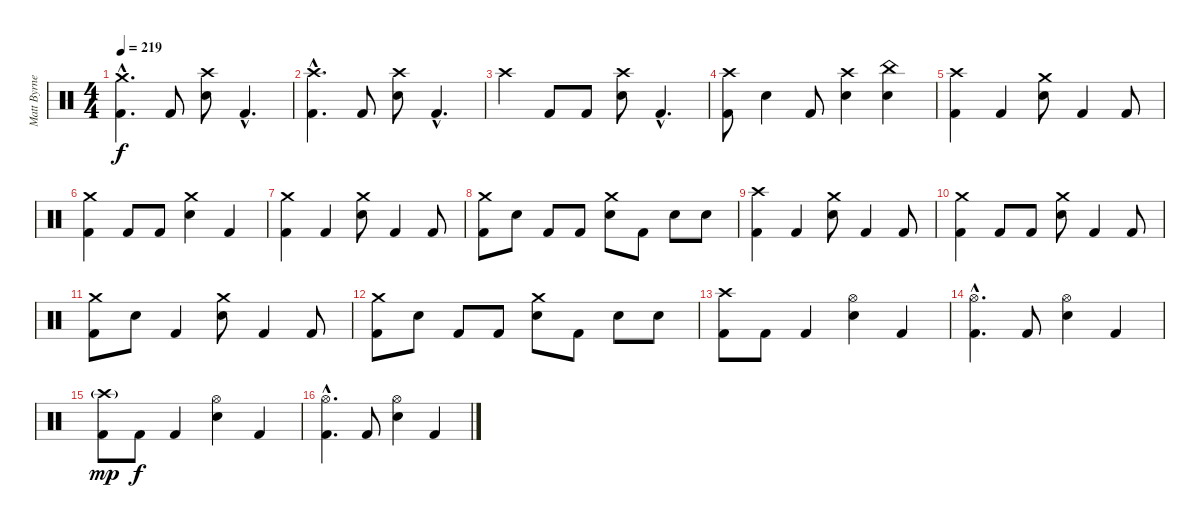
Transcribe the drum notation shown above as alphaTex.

\track ("Matt Byrne (Drums)" "Matt Byrne") {instrument percussion}
\staff {score}
\articulation defaults
\ts (4 4)
\tempo 219
\clef neutral
\ks c
("Crash medium (hit)"{hac} "Kick (hit) 2"{hac}).4{d dy f} "Kick (hit) 2".8 ("Crash high (hit)" "Snare (hit) 2").8 "Kick (hit) 2"{hac}.4{d} |
("Crash high (hit)"{hac} "Kick (hit) 2"{hac}).4{d} "Kick (hit) 2".8 ("Crash high (hit)" "Snare (hit) 2").8 "Kick (hit) 2"{hac}.4{d} |
"Crash high (hit)".4 "Kick (hit) 2".8 "Kick (hit) 2".8 ("Crash high (hit)" "Snare (hit) 2").8 "Kick (hit) 2"{hac}.4{d} |
("Crash high (hit)" "Kick (hit) 2").8 "Snare (hit) 2".4 "Kick (hit) 2".8 ("Crash high (hit)" "Snare (hit) 2").4 ("China (hit)" "Snare (hit) 2").4 |
("Crash high (hit)" "Kick (hit) 2").4 "Kick (hit) 2".4 ("Crash medium (hit)" "Snare (hit) 2").8 "Kick (hit) 2".4 "Kick (hit) 2".8 |
("Crash medium (hit)" "Kick (hit) 2").4 "Kick (hit) 2".8 "Kick (hit) 2".8 ("Crash medium (hit)" "Snare (hit) 2").4 "Kick (hit) 2".4 |
("Crash medium (hit)" "Kick (hit) 2").4 "Kick (hit) 2".4 ("Crash medium (hit)" "Snare (hit) 2").8 "Kick (hit) 2".4 "Kick (hit) 2".8 |
("Crash medium (hit)" "Kick (hit) 2").8 "Snare (hit) 2".8 "Kick (hit) 2".8 "Kick (hit) 2".8 ("Crash medium (hit)" "Snare (hit) 2").8 "Kick (hit) 2".8 "Snare (hit) 2".8 "Snare (hit) 2".8 |
("Crash high (hit)" "Kick (hit) 2").4 "Kick (hit) 2".4 ("Crash medium (hit)" "Snare (hit) 2").8 "Kick (hit) 2".4 "Kick (hit) 2".8 |
("Crash medium (hit)" "Kick (hit) 2").4 "Kick (hit) 2".8 "Kick (hit) 2".8 ("Crash medium (hit)" "Snare (hit) 2").8 "Kick (hit) 2".4 "Kick (hit) 2".8 |
("Crash medium (hit)" "Kick (hit) 2").8 "Snare (hit) 2".8 "Kick (hit) 2".4 ("Crash medium (hit)" "Snare (hit) 2").8 "Kick (hit) 2".4 "Kick (hit) 2".8 |
("Crash medium (hit)" "Kick (hit) 2").8 "Snare (hit) 2".8 "Kick (hit) 2".8 "Kick (hit) 2".8 ("Crash medium (hit)" "Snare (hit) 2").8 "Kick (hit) 2".8 "Snare (hit) 2".8 "Snare (hit) 2".8 |
("Crash high (hit)" "Kick (hit) 2").8 "Kick (hit) 2".8 "Kick (hit) 2".4 ("Hi-Hat (open)" "Snare (hit) 2").4 "Kick (hit) 2".4 |
("Hi-Hat (open)"{hac} "Kick (hit) 2"{hac}).4{d} "Kick (hit) 2".8 ("Hi-Hat (open)" "Snare (hit) 2").4 "Kick (hit) 2".4 |
("Crash high (hit)"{g} "Kick (hit) 2").8{dy mp} "Kick (hit) 2".8{dy f} "Kick (hit) 2".4 ("Hi-Hat (open)" "Snare (hit) 2").4 "Kick (hit) 2".4 |
("Hi-Hat (open)"{hac} "Kick (hit) 2"{hac}).4{d} "Kick (hit) 2".8 ("Hi-Hat (open)" "Snare (hit) 2").4 "Kick (hit) 2".4
